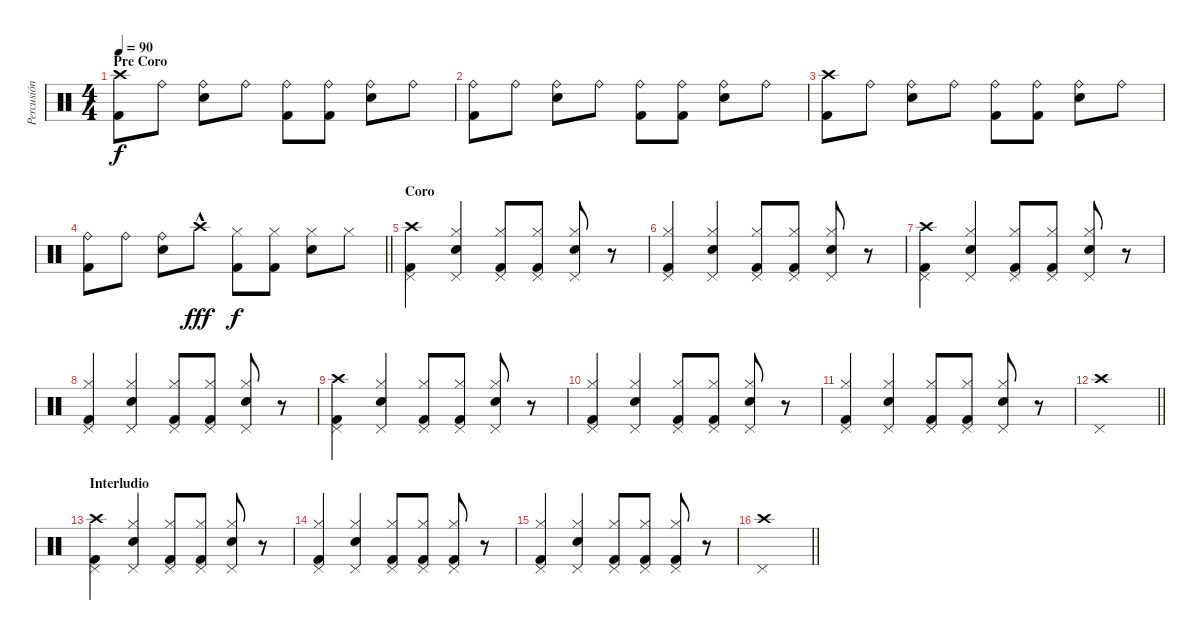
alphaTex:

\track ("Percusión" "Percusión") {instrument percussion}
\staff {score}
\articulation defaults
\ts (4 4)
\section ("" "Pre Coro")
\tempo 90
\clef neutral
\ks c
("Crash high (hit)" "Kick (hit) 2").8{dy f} "Ride (bell)".8 ("Ride (bell)" "Snare (hit) 2").8 "Ride (bell)".8 ("Ride (bell)" "Kick (hit) 2").8 ("Ride (bell)" "Kick (hit) 2").8 ("Ride (bell)" "Snare (hit) 2").8 "Ride (bell)".8 |
("Ride (bell)" "Kick (hit) 2").8 "Ride (bell)".8 ("Ride (bell)" "Snare (hit) 2").8 "Ride (bell)".8 ("Ride (bell)" "Kick (hit) 2").8 ("Ride (bell)" "Kick (hit) 2").8 ("Ride (bell)" "Snare (hit) 2").8 "Ride (bell)".8 |
("Crash high (hit)" "Kick (hit) 2").8 "Ride (bell)".8 ("Ride (bell)" "Snare (hit) 2").8 "Ride (bell)".8 ("Ride (bell)" "Kick (hit) 2").8 ("Ride (bell)" "Kick (hit) 2").8 ("Ride (bell)" "Snare (hit) 2").8 "Ride (bell)".8 |
\barLineRight lightlight
("Ride (bell)" "Kick (hit) 2").8 "Ride (bell)".8 ("Ride (bell)" "Snare (hit) 2").8 "Crash high (hit)"{hac}.8{dy fff} ("Hi-Hat (closed)" "Kick (hit) 2").8{dy f} ("Hi-Hat (closed)" "Kick (hit) 2").8 ("Hi-Hat (closed)" "Snare (hit) 2").8 "Hi-Hat (closed)".8 |
\section ("" "Coro")
("Crash high (hit)" "Kick (hit) 2" "Pedal Hi-Hat (hit)").4 ("Hi-Hat (closed)" "Snare (hit) 2" "Pedal Hi-Hat (hit)").4 ("Hi-Hat (closed)" "Kick (hit) 2" "Pedal Hi-Hat (hit)").8 ("Hi-Hat (closed)" "Kick (hit) 2" "Pedal Hi-Hat (hit)").8 ("Hi-Hat (closed)" "Snare (hit) 2" "Pedal Hi-Hat (hit)").8 r.8 |
("Hi-Hat (closed)" "Kick (hit) 2" "Pedal Hi-Hat (hit)").4 ("Hi-Hat (closed)" "Snare (hit) 2" "Pedal Hi-Hat (hit)").4 ("Hi-Hat (closed)" "Kick (hit) 2" "Pedal Hi-Hat (hit)").8 ("Hi-Hat (closed)" "Kick (hit) 2" "Pedal Hi-Hat (hit)").8 ("Hi-Hat (closed)" "Snare (hit) 2" "Pedal Hi-Hat (hit)").8 r.8 |
("Crash high (hit)" "Kick (hit) 2" "Pedal Hi-Hat (hit)").4 ("Hi-Hat (closed)" "Snare (hit) 2" "Pedal Hi-Hat (hit)").4 ("Hi-Hat (closed)" "Kick (hit) 2" "Pedal Hi-Hat (hit)").8 ("Hi-Hat (closed)" "Kick (hit) 2" "Pedal Hi-Hat (hit)").8 ("Hi-Hat (closed)" "Snare (hit) 2" "Pedal Hi-Hat (hit)").8 r.8 |
("Hi-Hat (closed)" "Kick (hit) 2" "Pedal Hi-Hat (hit)").4 ("Hi-Hat (closed)" "Snare (hit) 2" "Pedal Hi-Hat (hit)").4 ("Hi-Hat (closed)" "Kick (hit) 2" "Pedal Hi-Hat (hit)").8 ("Hi-Hat (closed)" "Kick (hit) 2" "Pedal Hi-Hat (hit)").8 ("Hi-Hat (closed)" "Snare (hit) 2" "Pedal Hi-Hat (hit)").8 r.8 |
("Crash high (hit)" "Kick (hit) 2" "Pedal Hi-Hat (hit)").4 ("Hi-Hat (closed)" "Snare (hit) 2" "Pedal Hi-Hat (hit)").4 ("Hi-Hat (closed)" "Kick (hit) 2" "Pedal Hi-Hat (hit)").8 ("Hi-Hat (closed)" "Kick (hit) 2" "Pedal Hi-Hat (hit)").8 ("Hi-Hat (closed)" "Snare (hit) 2" "Pedal Hi-Hat (hit)").8 r.8 |
("Hi-Hat (closed)" "Kick (hit) 2" "Pedal Hi-Hat (hit)").4 ("Hi-Hat (closed)" "Snare (hit) 2" "Pedal Hi-Hat (hit)").4 ("Hi-Hat (closed)" "Kick (hit) 2" "Pedal Hi-Hat (hit)").8 ("Hi-Hat (closed)" "Kick (hit) 2" "Pedal Hi-Hat (hit)").8 ("Hi-Hat (closed)" "Snare (hit) 2" "Pedal Hi-Hat (hit)").8 r.8 |
("Hi-Hat (closed)" "Kick (hit) 2" "Pedal Hi-Hat (hit)").4 ("Hi-Hat (closed)" "Snare (hit) 2" "Pedal Hi-Hat (hit)").4 ("Hi-Hat (closed)" "Kick (hit) 2" "Pedal Hi-Hat (hit)").8 ("Hi-Hat (closed)" "Kick (hit) 2" "Pedal Hi-Hat (hit)").8 ("Hi-Hat (closed)" "Snare (hit) 2" "Pedal Hi-Hat (hit)").8 r.8 |
\barLineRight lightlight
("Crash high (hit)" "Pedal Hi-Hat (hit)").1 |
\section ("" "Interludio")
("Crash high (hit)" "Kick (hit) 2" "Pedal Hi-Hat (hit)").4 ("Hi-Hat (closed)" "Snare (hit) 2" "Pedal Hi-Hat (hit)").4 ("Hi-Hat (closed)" "Kick (hit) 2" "Pedal Hi-Hat (hit)").8 ("Hi-Hat (closed)" "Kick (hit) 2" "Pedal Hi-Hat (hit)").8 ("Hi-Hat (closed)" "Snare (hit) 2" "Pedal Hi-Hat (hit)").8 r.8 |
("Hi-Hat (closed)" "Kick (hit) 2" "Pedal Hi-Hat (hit)").4 ("Hi-Hat (closed)" "Snare (hit) 2" "Pedal Hi-Hat (hit)").4 ("Hi-Hat (closed)" "Kick (hit) 2" "Pedal Hi-Hat (hit)").8 ("Hi-Hat (closed)" "Kick (hit) 2" "Pedal Hi-Hat (hit)").8 ("Hi-Hat (closed)" "Kick (hit) 2" "Pedal Hi-Hat (hit)").8 r.8 |
("Hi-Hat (closed)" "Kick (hit) 2" "Pedal Hi-Hat (hit)").4 ("Hi-Hat (closed)" "Snare (hit) 2" "Pedal Hi-Hat (hit)").4 ("Hi-Hat (closed)" "Kick (hit) 2" "Pedal Hi-Hat (hit)").8 ("Hi-Hat (closed)" "Kick (hit) 2" "Pedal Hi-Hat (hit)").8 ("Hi-Hat (closed)" "Kick (hit) 2" "Pedal Hi-Hat (hit)").8 r.8 |
\barLineRight lightlight
("Crash high (hit)" "Pedal Hi-Hat (hit)").1
